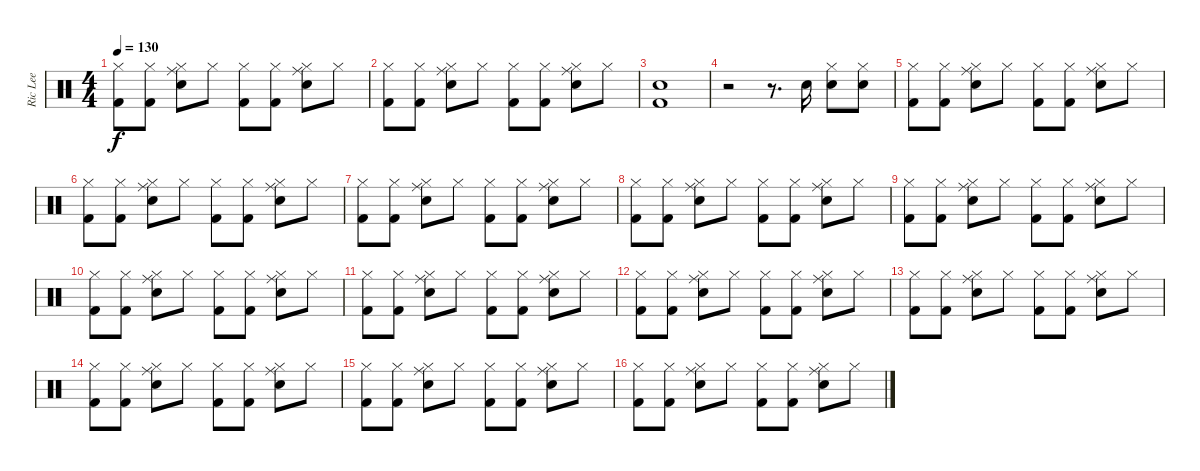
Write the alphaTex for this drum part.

\track ("Ric Lee" "Ric Lee") {instrument percussion}
\staff {score}
\articulation defaults
\ts (4 4)
\tempo 130
\clef neutral
\ks c
("Kick (hit) 2" "Hi-Hat (closed)").8{dy f} ("Kick (hit) 2" "Hi-Hat (closed)").8 ("Snare (hit) 2" "Hi-Hat (closed)" "Ride (middle)").8 "Hi-Hat (closed)".8 ("Kick (hit) 2" "Hi-Hat (closed)").8 ("Kick (hit) 2" "Hi-Hat (closed)").8 ("Snare (hit) 2" "Hi-Hat (closed)" "Ride (middle)").8 "Hi-Hat (closed)".8 |
("Kick (hit) 2" "Hi-Hat (closed)").8 ("Kick (hit) 2" "Hi-Hat (closed)").8 ("Snare (hit) 2" "Hi-Hat (closed)" "Ride (middle)").8 "Hi-Hat (closed)".8 ("Kick (hit) 2" "Hi-Hat (closed)").8 ("Kick (hit) 2" "Hi-Hat (closed)").8 ("Snare (hit) 2" "Hi-Hat (closed)" "Ride (middle)").8 "Hi-Hat (closed)".8 |
("Kick (hit) 2" "Snare (hit) 2").1 |
r.2 r.8{d} "Snare (hit) 2".16 ("Snare (hit) 2" "Hi-Hat (closed)").8 ("Snare (hit) 2" "Hi-Hat (closed)").8 |
("Kick (hit) 2" "Hi-Hat (closed)").8 ("Kick (hit) 2" "Hi-Hat (closed)").8 ("Snare (hit) 2" "Hi-Hat (closed)" "Ride (middle)").8 "Hi-Hat (closed)".8 ("Kick (hit) 2" "Hi-Hat (closed)").8 ("Kick (hit) 2" "Hi-Hat (closed)").8 ("Snare (hit) 2" "Hi-Hat (closed)" "Ride (middle)").8 "Hi-Hat (closed)".8 |
("Kick (hit) 2" "Hi-Hat (closed)").8 ("Kick (hit) 2" "Hi-Hat (closed)").8 ("Snare (hit) 2" "Hi-Hat (closed)" "Ride (middle)").8 "Hi-Hat (closed)".8 ("Kick (hit) 2" "Hi-Hat (closed)").8 ("Kick (hit) 2" "Hi-Hat (closed)").8 ("Snare (hit) 2" "Hi-Hat (closed)" "Ride (middle)").8 "Hi-Hat (closed)".8 |
("Kick (hit) 2" "Hi-Hat (closed)").8 ("Kick (hit) 2" "Hi-Hat (closed)").8 ("Snare (hit) 2" "Hi-Hat (closed)" "Ride (middle)").8 "Hi-Hat (closed)".8 ("Kick (hit) 2" "Hi-Hat (closed)").8 ("Kick (hit) 2" "Hi-Hat (closed)").8 ("Snare (hit) 2" "Hi-Hat (closed)" "Ride (middle)").8 "Hi-Hat (closed)".8 |
("Kick (hit) 2" "Hi-Hat (closed)").8 ("Kick (hit) 2" "Hi-Hat (closed)").8 ("Snare (hit) 2" "Hi-Hat (closed)" "Ride (middle)").8 "Hi-Hat (closed)".8 ("Kick (hit) 2" "Hi-Hat (closed)").8 ("Kick (hit) 2" "Hi-Hat (closed)").8 ("Snare (hit) 2" "Hi-Hat (closed)" "Ride (middle)").8 "Hi-Hat (closed)".8 |
("Kick (hit) 2" "Hi-Hat (closed)").8 ("Kick (hit) 2" "Hi-Hat (closed)").8 ("Snare (hit) 2" "Hi-Hat (closed)" "Ride (middle)").8 "Hi-Hat (closed)".8 ("Kick (hit) 2" "Hi-Hat (closed)").8 ("Kick (hit) 2" "Hi-Hat (closed)").8 ("Snare (hit) 2" "Hi-Hat (closed)" "Ride (middle)").8 "Hi-Hat (closed)".8 |
("Kick (hit) 2" "Hi-Hat (closed)").8 ("Kick (hit) 2" "Hi-Hat (closed)").8 ("Snare (hit) 2" "Hi-Hat (closed)" "Ride (middle)").8 "Hi-Hat (closed)".8 ("Kick (hit) 2" "Hi-Hat (closed)").8 ("Kick (hit) 2" "Hi-Hat (closed)").8 ("Snare (hit) 2" "Hi-Hat (closed)" "Ride (middle)").8 "Hi-Hat (closed)".8 |
("Kick (hit) 2" "Hi-Hat (closed)").8 ("Kick (hit) 2" "Hi-Hat (closed)").8 ("Snare (hit) 2" "Hi-Hat (closed)" "Ride (middle)").8 "Hi-Hat (closed)".8 ("Kick (hit) 2" "Hi-Hat (closed)").8 ("Kick (hit) 2" "Hi-Hat (closed)").8 ("Snare (hit) 2" "Hi-Hat (closed)" "Ride (middle)").8 "Hi-Hat (closed)".8 |
("Kick (hit) 2" "Hi-Hat (closed)").8 ("Kick (hit) 2" "Hi-Hat (closed)").8 ("Snare (hit) 2" "Hi-Hat (closed)" "Ride (middle)").8 "Hi-Hat (closed)".8 ("Kick (hit) 2" "Hi-Hat (closed)").8 ("Kick (hit) 2" "Hi-Hat (closed)").8 ("Snare (hit) 2" "Hi-Hat (closed)" "Ride (middle)").8 "Hi-Hat (closed)".8 |
("Kick (hit) 2" "Hi-Hat (closed)").8 ("Kick (hit) 2" "Hi-Hat (closed)").8 ("Snare (hit) 2" "Hi-Hat (closed)" "Ride (middle)").8 "Hi-Hat (closed)".8 ("Kick (hit) 2" "Hi-Hat (closed)").8 ("Kick (hit) 2" "Hi-Hat (closed)").8 ("Snare (hit) 2" "Hi-Hat (closed)" "Ride (middle)").8 "Hi-Hat (closed)".8 |
("Kick (hit) 2" "Hi-Hat (closed)").8 ("Kick (hit) 2" "Hi-Hat (closed)").8 ("Snare (hit) 2" "Hi-Hat (closed)" "Ride (middle)").8 "Hi-Hat (closed)".8 ("Kick (hit) 2" "Hi-Hat (closed)").8 ("Kick (hit) 2" "Hi-Hat (closed)").8 ("Snare (hit) 2" "Hi-Hat (closed)" "Ride (middle)").8 "Hi-Hat (closed)".8 |
("Kick (hit) 2" "Hi-Hat (closed)").8 ("Kick (hit) 2" "Hi-Hat (closed)").8 ("Snare (hit) 2" "Hi-Hat (closed)" "Ride (middle)").8 "Hi-Hat (closed)".8 ("Kick (hit) 2" "Hi-Hat (closed)").8 ("Kick (hit) 2" "Hi-Hat (closed)").8 ("Snare (hit) 2" "Hi-Hat (closed)" "Ride (middle)").8 "Hi-Hat (closed)".8 |
("Kick (hit) 2" "Hi-Hat (closed)").8 ("Kick (hit) 2" "Hi-Hat (closed)").8 ("Snare (hit) 2" "Hi-Hat (closed)" "Ride (middle)").8 "Hi-Hat (closed)".8 ("Kick (hit) 2" "Hi-Hat (closed)").8 ("Kick (hit) 2" "Hi-Hat (closed)").8 ("Snare (hit) 2" "Hi-Hat (closed)" "Ride (middle)").8 "Hi-Hat (closed)".8
